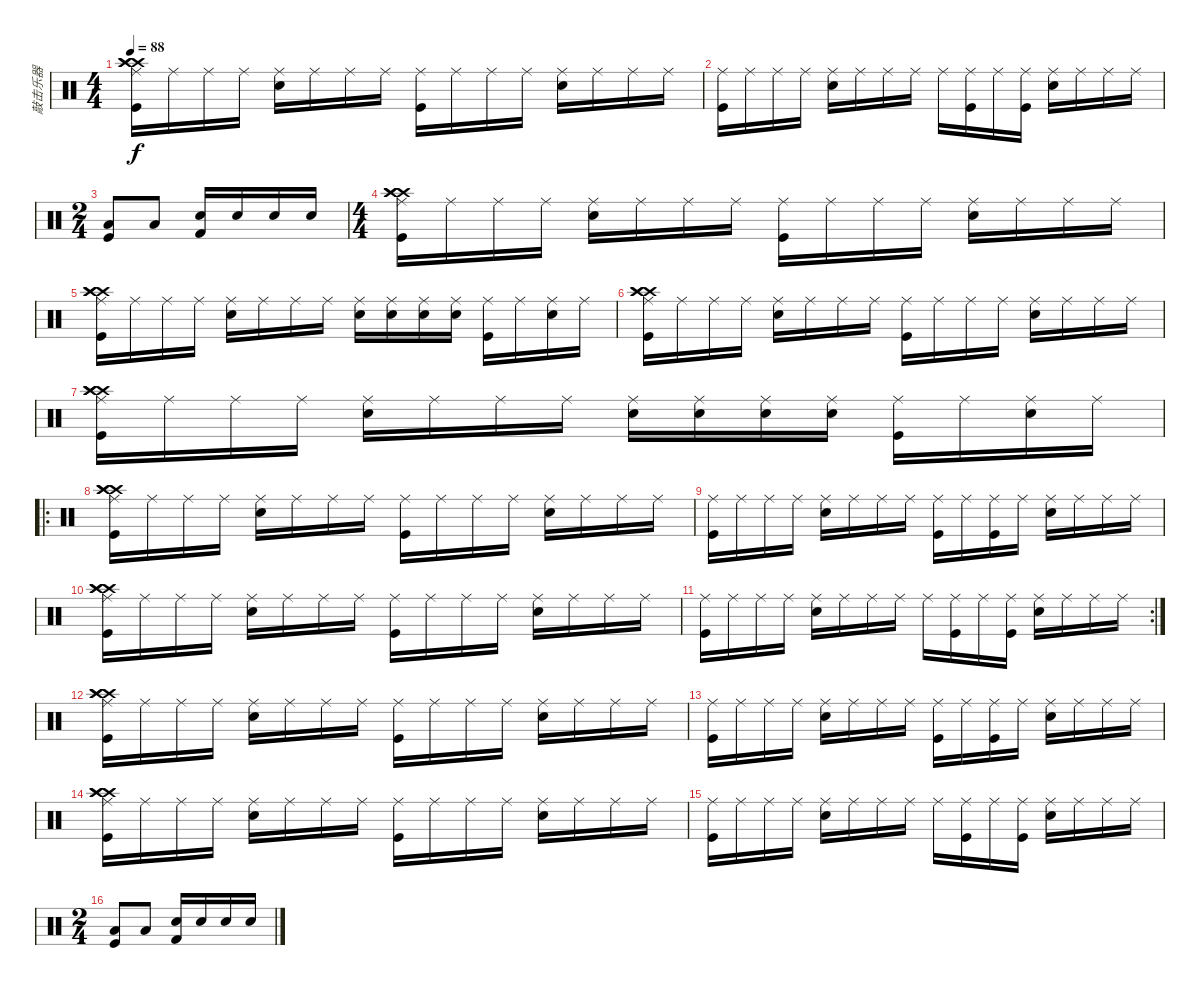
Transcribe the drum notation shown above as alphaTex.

\track ("敲击乐器" "敲击乐器") {instrument percussion}
\staff {score}
\articulation defaults
\ts (4 4)
\tempo 88
\clef neutral
\ks c
("Ride (middle)" "Kick (hit)" "Crash high (hit)" "Crash high (hit)" "Crash high (hit)").16{dy f} "Ride (middle)".16 "Ride (middle)".16 "Ride (middle)".16 ("Ride (middle)" "Electric Snare (hit)").16 "Ride (middle)".16 "Ride (middle)".16 "Ride (middle)".16 ("Ride (middle)" "Kick (hit)").16 "Ride (middle)".16 "Ride (middle)".16 "Ride (middle)".16 ("Ride (middle)" "Electric Snare (hit)").16 "Ride (middle)".16 "Ride (middle)".16 "Ride (middle)".16 |
("Ride (middle)" "Kick (hit)").16 "Ride (middle)".16 "Ride (middle)".16 "Ride (middle)".16 ("Ride (middle)" "Electric Snare (hit)").16 "Ride (middle)".16 "Ride (middle)".16 "Ride (middle)".16 "Ride (middle)".16 ("Ride (middle)" "Kick (hit)").16 "Ride (middle)".16 ("Ride (middle)" "Kick (hit)").16 ("Ride (middle)" "Electric Snare (hit)").16 "Ride (middle)".16 "Ride (middle)".16 "Ride (middle)".16 |
\ts (2 4)
("Low Floor Tom (hit)" "Kick (hit)").8 "Low Floor Tom (hit)".8 ("Metronome (bell)" "Kick (hit) 2").16 "Metronome (bell)".16 "Metronome (bell)".16 "Metronome (bell)".16 |
\ts (4 4)
("Ride (middle)" "Kick (hit)" "Crash high (hit)" "Crash high (hit)" "Crash high (hit)").16 "Ride (middle)".16 "Ride (middle)".16 "Ride (middle)".16 ("Ride (middle)" "Electric Snare (hit)").16 "Ride (middle)".16 "Ride (middle)".16 "Ride (middle)".16 ("Ride (middle)" "Kick (hit)").16 "Ride (middle)".16 "Ride (middle)".16 "Ride (middle)".16 ("Ride (middle)" "Electric Snare (hit)").16 "Ride (middle)".16 "Ride (middle)".16 "Ride (middle)".16 |
("Ride (middle)" "Kick (hit)" "Crash high (hit)" "Crash high (hit)" "Crash high (hit)").16 "Ride (middle)".16 "Ride (middle)".16 "Ride (middle)".16 ("Ride (middle)" "Electric Snare (hit)").16 "Ride (middle)".16 "Ride (middle)".16 "Ride (middle)".16 ("Ride (middle)" "Electric Snare (hit)").16 ("Ride (middle)" "Electric Snare (hit)").16 ("Ride (middle)" "Electric Snare (hit)").16 ("Ride (middle)" "Electric Snare (hit)").16 ("Ride (middle)" "Kick (hit)").16 "Ride (middle)".16 ("Ride (middle)" "Electric Snare (hit)").16 "Ride (middle)".16 |
("Ride (middle)" "Kick (hit)" "Crash high (hit)" "Crash high (hit)" "Crash high (hit)").16 "Ride (middle)".16 "Ride (middle)".16 "Ride (middle)".16 ("Ride (middle)" "Electric Snare (hit)").16 "Ride (middle)".16 "Ride (middle)".16 "Ride (middle)".16 ("Ride (middle)" "Kick (hit)").16 "Ride (middle)".16 "Ride (middle)".16 "Ride (middle)".16 ("Ride (middle)" "Electric Snare (hit)").16 "Ride (middle)".16 "Ride (middle)".16 "Ride (middle)".16 |
("Ride (middle)" "Kick (hit)" "Crash high (hit)" "Crash high (hit)" "Crash high (hit)").16 "Ride (middle)".16 "Ride (middle)".16 "Ride (middle)".16 ("Ride (middle)" "Electric Snare (hit)").16 "Ride (middle)".16 "Ride (middle)".16 "Ride (middle)".16 ("Ride (middle)" "Electric Snare (hit)").16 ("Ride (middle)" "Electric Snare (hit)").16 ("Ride (middle)" "Electric Snare (hit)").16 ("Ride (middle)" "Electric Snare (hit)").16 ("Ride (middle)" "Kick (hit)").16 "Ride (middle)".16 ("Ride (middle)" "Electric Snare (hit)").16 "Ride (middle)".16 |
\ro
("Ride (middle)" "Kick (hit)" "Crash high (hit)" "Crash high (hit)" "Crash high (hit)").16 "Ride (middle)".16 "Ride (middle)".16 "Ride (middle)".16 ("Ride (middle)" "Electric Snare (hit)").16 "Ride (middle)".16 "Ride (middle)".16 "Ride (middle)".16 ("Ride (middle)" "Kick (hit)").16 "Ride (middle)".16 "Ride (middle)".16 "Ride (middle)".16 ("Ride (middle)" "Electric Snare (hit)").16 "Ride (middle)".16 "Ride (middle)".16 "Ride (middle)".16 |
("Ride (middle)" "Kick (hit)").16 "Ride (middle)".16 "Ride (middle)".16 "Ride (middle)".16 ("Ride (middle)" "Electric Snare (hit)").16 "Ride (middle)".16 "Ride (middle)".16 "Ride (middle)".16 ("Ride (middle)" "Kick (hit)").16 "Ride (middle)".16 ("Ride (middle)" "Kick (hit)").16 "Ride (middle)".16 ("Ride (middle)" "Electric Snare (hit)").16 "Ride (middle)".16 "Ride (middle)".16 "Ride (middle)".16 |
("Ride (middle)" "Kick (hit)" "Crash high (hit)" "Crash high (hit)" "Crash high (hit)").16 "Ride (middle)".16 "Ride (middle)".16 "Ride (middle)".16 ("Ride (middle)" "Electric Snare (hit)").16 "Ride (middle)".16 "Ride (middle)".16 "Ride (middle)".16 ("Ride (middle)" "Kick (hit)").16 "Ride (middle)".16 "Ride (middle)".16 "Ride (middle)".16 ("Ride (middle)" "Electric Snare (hit)").16 "Ride (middle)".16 "Ride (middle)".16 "Ride (middle)".16 |
\rc 2
("Ride (middle)" "Kick (hit)").16 "Ride (middle)".16 "Ride (middle)".16 "Ride (middle)".16 ("Ride (middle)" "Electric Snare (hit)").16 "Ride (middle)".16 "Ride (middle)".16 "Ride (middle)".16 "Ride (middle)".16 ("Ride (middle)" "Kick (hit)").16 "Ride (middle)".16 ("Ride (middle)" "Kick (hit)").16 ("Ride (middle)" "Electric Snare (hit)").16 "Ride (middle)".16 "Ride (middle)".16 "Ride (middle)".16 |
("Ride (middle)" "Kick (hit)" "Crash high (hit)" "Crash high (hit)" "Crash high (hit)").16 "Ride (middle)".16 "Ride (middle)".16 "Ride (middle)".16 ("Ride (middle)" "Electric Snare (hit)").16 "Ride (middle)".16 "Ride (middle)".16 "Ride (middle)".16 ("Ride (middle)" "Kick (hit)").16 "Ride (middle)".16 "Ride (middle)".16 "Ride (middle)".16 ("Ride (middle)" "Electric Snare (hit)").16 "Ride (middle)".16 "Ride (middle)".16 "Ride (middle)".16 |
("Ride (middle)" "Kick (hit)").16 "Ride (middle)".16 "Ride (middle)".16 "Ride (middle)".16 ("Ride (middle)" "Electric Snare (hit)").16 "Ride (middle)".16 "Ride (middle)".16 "Ride (middle)".16 ("Ride (middle)" "Kick (hit)").16 "Ride (middle)".16 ("Ride (middle)" "Kick (hit)").16 "Ride (middle)".16 ("Ride (middle)" "Electric Snare (hit)").16 "Ride (middle)".16 "Ride (middle)".16 "Ride (middle)".16 |
("Ride (middle)" "Kick (hit)" "Crash high (hit)" "Crash high (hit)" "Crash high (hit)").16 "Ride (middle)".16 "Ride (middle)".16 "Ride (middle)".16 ("Ride (middle)" "Electric Snare (hit)").16 "Ride (middle)".16 "Ride (middle)".16 "Ride (middle)".16 ("Ride (middle)" "Kick (hit)").16 "Ride (middle)".16 "Ride (middle)".16 "Ride (middle)".16 ("Ride (middle)" "Electric Snare (hit)").16 "Ride (middle)".16 "Ride (middle)".16 "Ride (middle)".16 |
("Ride (middle)" "Kick (hit)").16 "Ride (middle)".16 "Ride (middle)".16 "Ride (middle)".16 ("Ride (middle)" "Electric Snare (hit)").16 "Ride (middle)".16 "Ride (middle)".16 "Ride (middle)".16 "Ride (middle)".16 ("Ride (middle)" "Kick (hit)").16 "Ride (middle)".16 ("Ride (middle)" "Kick (hit)").16 ("Ride (middle)" "Electric Snare (hit)").16 "Ride (middle)".16 "Ride (middle)".16 "Ride (middle)".16 |
\ts (2 4)
("Low Floor Tom (hit)" "Kick (hit)").8 "Low Floor Tom (hit)".8 ("Metronome (bell)" "Kick (hit) 2").16 "Metronome (bell)".16 "Metronome (bell)".16 "Metronome (bell)".16
